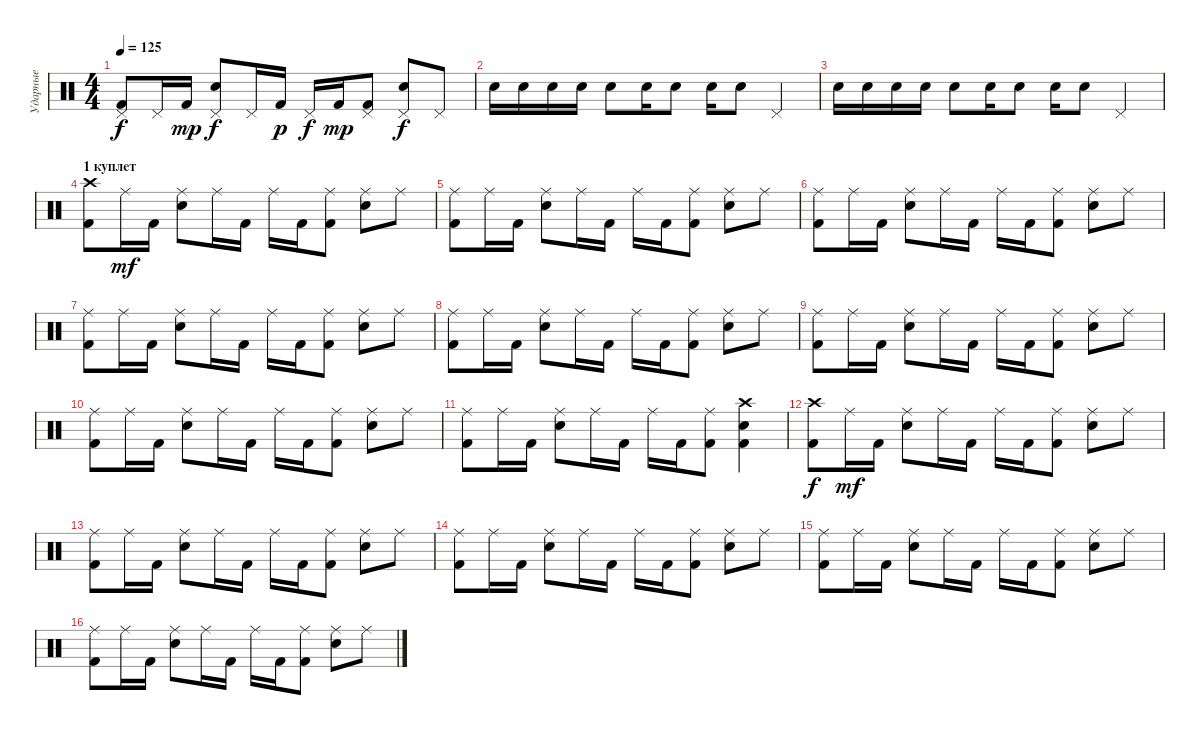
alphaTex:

\track ("Ударные" "Ударные") {instrument percussion}
\staff {score}
\articulation defaults
\ts (4 4)
\tempo 125
\clef neutral
\ks c
("Pedal Hi-Hat (hit)" "Kick (hit) 2").8{dy f} "Pedal Hi-Hat (hit)".16 "Kick (hit) 2".16{dy mp} ("Pedal Hi-Hat (hit)" "Snare (hit) 2").8{dy f} "Pedal Hi-Hat (hit)".16 "Kick (hit) 2".16{dy p} "Pedal Hi-Hat (hit)".16{dy f} "Kick (hit) 2".16{dy mp} ("Pedal Hi-Hat (hit)" "Kick (hit) 2").8 ("Pedal Hi-Hat (hit)" "Snare (hit) 2").8{dy f} "Pedal Hi-Hat (hit)".8 |
"Snare (hit) 2".16 "Snare (hit) 2".16 "Snare (hit) 2".16 "Snare (hit) 2".16 "Snare (hit) 2".8 "Snare (hit) 2".16 "Snare (hit) 2".8 "Snare (hit) 2".16 "Snare (hit) 2".8 "Pedal Hi-Hat (hit)".4 |
"Snare (hit) 2".16 "Snare (hit) 2".16 "Snare (hit) 2".16 "Snare (hit) 2".16 "Snare (hit) 2".8 "Snare (hit) 2".16 "Snare (hit) 2".8 "Snare (hit) 2".16 "Snare (hit) 2".8 "Pedal Hi-Hat (hit)".4 |
\section ("" "1 куплет")
("Crash high (hit)" "Kick (hit) 2").8 "Ride (middle)".16{dy mf} "Kick (hit) 2".16 ("Ride (middle)" "Snare (hit) 2").8 "Ride (middle)".16 "Kick (hit) 2".16 "Ride (middle)".16 "Kick (hit) 2".16 ("Ride (middle)" "Kick (hit) 2").8 ("Ride (middle)" "Snare (hit) 2").8 "Ride (middle)".8 |
("Ride (middle)" "Kick (hit) 2").8 "Ride (middle)".16 "Kick (hit) 2".16 ("Ride (middle)" "Snare (hit) 2").8 "Ride (middle)".16 "Kick (hit) 2".16 "Ride (middle)".16 "Kick (hit) 2".16 ("Ride (middle)" "Kick (hit) 2").8 ("Ride (middle)" "Snare (hit) 2").8 "Ride (middle)".8 |
("Ride (middle)" "Kick (hit) 2").8 "Ride (middle)".16 "Kick (hit) 2".16 ("Ride (middle)" "Snare (hit) 2").8 "Ride (middle)".16 "Kick (hit) 2".16 "Ride (middle)".16 "Kick (hit) 2".16 ("Ride (middle)" "Kick (hit) 2").8 ("Ride (middle)" "Snare (hit) 2").8 "Ride (middle)".8 |
("Ride (middle)" "Kick (hit) 2").8 "Ride (middle)".16 "Kick (hit) 2".16 ("Ride (middle)" "Snare (hit) 2").8 "Ride (middle)".16 "Kick (hit) 2".16 "Ride (middle)".16 "Kick (hit) 2".16 ("Ride (middle)" "Kick (hit) 2").8 ("Ride (middle)" "Snare (hit) 2").8 "Ride (middle)".8 |
("Ride (middle)" "Kick (hit) 2").8 "Ride (middle)".16 "Kick (hit) 2".16 ("Ride (middle)" "Snare (hit) 2").8 "Ride (middle)".16 "Kick (hit) 2".16 "Ride (middle)".16 "Kick (hit) 2".16 ("Ride (middle)" "Kick (hit) 2").8 ("Ride (middle)" "Snare (hit) 2").8 "Ride (middle)".8 |
("Ride (middle)" "Kick (hit) 2").8 "Ride (middle)".16 "Kick (hit) 2".16 ("Ride (middle)" "Snare (hit) 2").8 "Ride (middle)".16 "Kick (hit) 2".16 "Ride (middle)".16 "Kick (hit) 2".16 ("Ride (middle)" "Kick (hit) 2").8 ("Ride (middle)" "Snare (hit) 2").8 "Ride (middle)".8 |
("Ride (middle)" "Kick (hit) 2").8 "Ride (middle)".16 "Kick (hit) 2".16 ("Ride (middle)" "Snare (hit) 2").8 "Ride (middle)".16 "Kick (hit) 2".16 "Ride (middle)".16 "Kick (hit) 2".16 ("Ride (middle)" "Kick (hit) 2").8 ("Ride (middle)" "Snare (hit) 2").8 "Ride (middle)".8 |
("Ride (middle)" "Kick (hit) 2").8 "Ride (middle)".16 "Kick (hit) 2".16 ("Ride (middle)" "Snare (hit) 2").8 "Ride (middle)".16 "Kick (hit) 2".16 "Ride (middle)".16 "Kick (hit) 2".16 ("Ride (middle)" "Kick (hit) 2").8 ("Crash high (hit)" "Snare (hit) 2" "Kick (hit) 2").4 |
("Crash high (hit)" "Kick (hit) 2").8{dy f} "Ride (middle)".16{dy mf} "Kick (hit) 2".16 ("Ride (middle)" "Snare (hit) 2").8 "Ride (middle)".16 "Kick (hit) 2".16 "Ride (middle)".16 "Kick (hit) 2".16 ("Ride (middle)" "Kick (hit) 2").8 ("Ride (middle)" "Snare (hit) 2").8 "Ride (middle)".8 |
("Ride (middle)" "Kick (hit) 2").8 "Ride (middle)".16 "Kick (hit) 2".16 ("Ride (middle)" "Snare (hit) 2").8 "Ride (middle)".16 "Kick (hit) 2".16 "Ride (middle)".16 "Kick (hit) 2".16 ("Ride (middle)" "Kick (hit) 2").8 ("Ride (middle)" "Snare (hit) 2").8 "Ride (middle)".8 |
("Ride (middle)" "Kick (hit) 2").8 "Ride (middle)".16 "Kick (hit) 2".16 ("Ride (middle)" "Snare (hit) 2").8 "Ride (middle)".16 "Kick (hit) 2".16 "Ride (middle)".16 "Kick (hit) 2".16 ("Ride (middle)" "Kick (hit) 2").8 ("Ride (middle)" "Snare (hit) 2").8 "Ride (middle)".8 |
("Ride (middle)" "Kick (hit) 2").8 "Ride (middle)".16 "Kick (hit) 2".16 ("Ride (middle)" "Snare (hit) 2").8 "Ride (middle)".16 "Kick (hit) 2".16 "Ride (middle)".16 "Kick (hit) 2".16 ("Ride (middle)" "Kick (hit) 2").8 ("Ride (middle)" "Snare (hit) 2").8 "Ride (middle)".8 |
("Ride (middle)" "Kick (hit) 2").8 "Ride (middle)".16 "Kick (hit) 2".16 ("Ride (middle)" "Snare (hit) 2").8 "Ride (middle)".16 "Kick (hit) 2".16 "Ride (middle)".16 "Kick (hit) 2".16 ("Ride (middle)" "Kick (hit) 2").8 ("Ride (middle)" "Snare (hit) 2").8 "Ride (middle)".8
